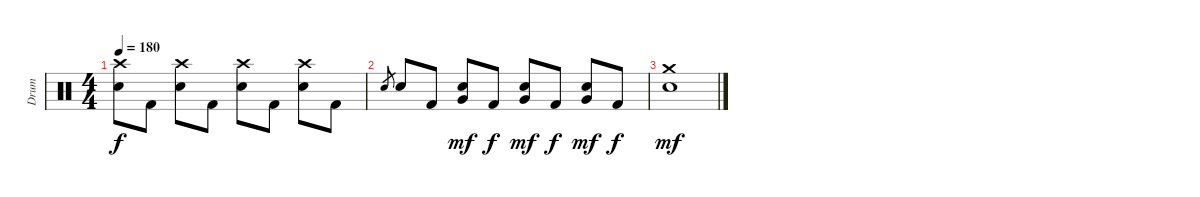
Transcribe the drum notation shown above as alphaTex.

\track ("Drum" "Drum") {instrument percussion}
\staff {score}
\articulation defaults
\ts (4 4)
\tempo 180
\clef neutral
\ks c
("Crash high (hit)" "Snare (hit) 2").8{dy f} "Kick (hit) 2".8 ("Crash high (hit)" "Snare (hit) 2").8 "Kick (hit) 2".8 ("Crash high (hit)" "Snare (hit) 2").8 "Kick (hit) 2".8 ("Crash high (hit)" "Snare (hit) 2").8 "Kick (hit) 2".8 |
"Snare (hit) 2".8{gr} "Snare (hit) 2".8 "Kick (hit) 2".8 ("Very Low Tom (hit)" "Snare (hit) 2").8{dy mf} "Kick (hit) 2".8{dy f} ("Very Low Tom (hit)" "Snare (hit) 2").8{dy mf} "Kick (hit) 2".8{dy f} ("Very Low Tom (hit)" "Snare (hit) 2").8{dy mf} "Kick (hit) 2".8{dy f} |
("Crash medium (hit)" "Snare (hit) 2").1{dy mf volume 0}
